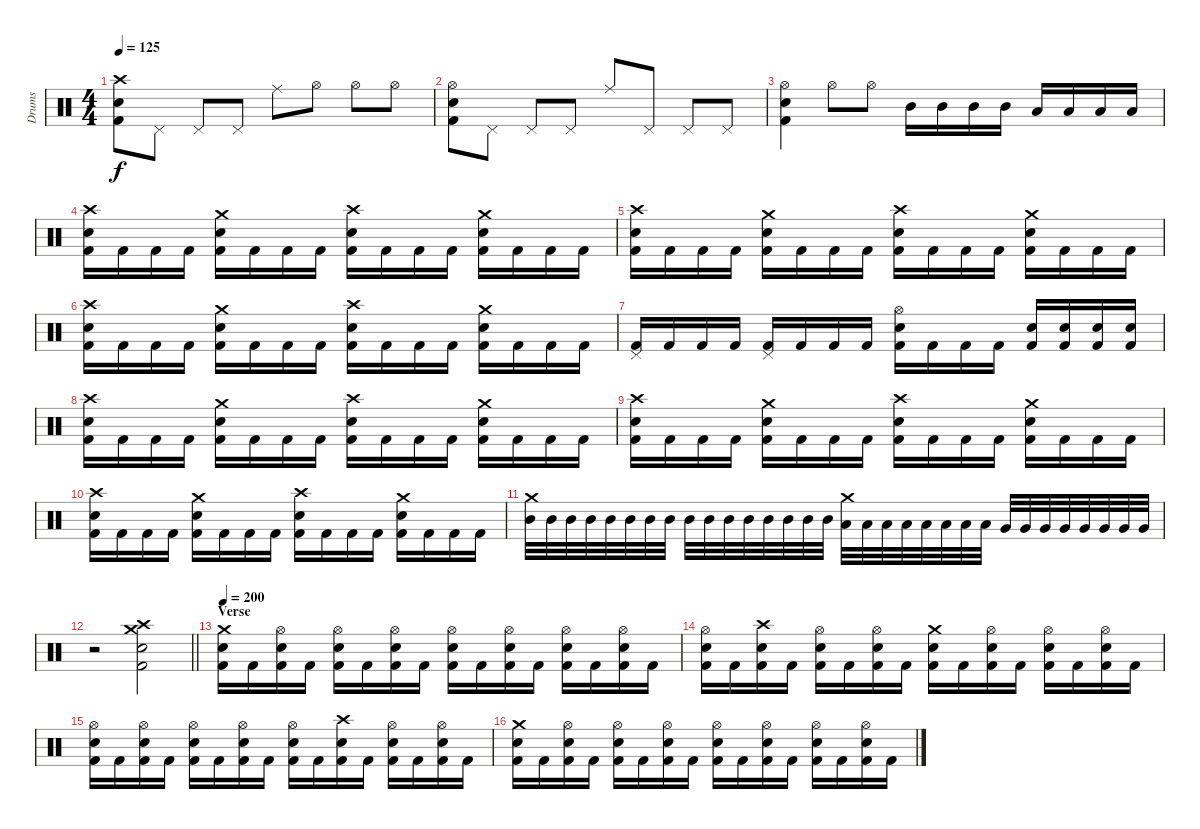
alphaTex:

\track ("Drums" "Drums") {instrument percussion}
\staff {score}
\articulation defaults
\ts (4 4)
\tempo 125
\clef neutral
\ks c
("Crash high (hit)" "Electric Snare (hit)" "Kick (hit) 2").8{dy f} "Pedal Hi-Hat (hit)".8 "Pedal Hi-Hat (hit)".8 "Pedal Hi-Hat (hit)".8 "Ride (middle)".8 "Hi-Hat (open)".8 "Hi-Hat (open)".8 "Hi-Hat (open)".8 |
("Hi-Hat (open)" "Electric Snare (hit)" "Kick (hit) 2").8 "Pedal Hi-Hat (hit)".8 "Pedal Hi-Hat (hit)".8 "Pedal Hi-Hat (hit)".8 "Ride (middle)".8 "Pedal Hi-Hat (hit)".8 "Pedal Hi-Hat (hit)".8 "Pedal Hi-Hat (hit)".8 |
("Hi-Hat (open)" "Electric Snare (hit)" "Kick (hit) 2").4 "Hi-Hat (open)".8 "Hi-Hat (open)".8 "Mid Tom (hit)".16 "Mid Tom (hit)".16 "Mid Tom (hit)".16 "Mid Tom (hit)".16 "Low Tom (hit)".16 "Low Tom (hit)".16 "Low Tom (hit)".16 "Low Tom (hit)".16 |
("Crash high (hit)" "Electric Snare (hit)" "Kick (hit) 2").16 "Kick (hit) 2".16 "Kick (hit) 2".16 "Kick (hit) 2".16 ("Crash medium (hit)" "Electric Snare (hit)" "Kick (hit) 2").16 "Kick (hit) 2".16 "Kick (hit) 2".16 "Kick (hit) 2".16 ("Crash high (hit)" "Electric Snare (hit)" "Kick (hit) 2").16 "Kick (hit) 2".16 "Kick (hit) 2".16 "Kick (hit) 2".16 ("Crash medium (hit)" "Electric Snare (hit)" "Kick (hit) 2").16 "Kick (hit) 2".16 "Kick (hit) 2".16 "Kick (hit) 2".16 |
("Crash high (hit)" "Electric Snare (hit)" "Kick (hit) 2").16 "Kick (hit) 2".16 "Kick (hit) 2".16 "Kick (hit) 2".16 ("Crash medium (hit)" "Electric Snare (hit)" "Kick (hit) 2").16 "Kick (hit) 2".16 "Kick (hit) 2".16 "Kick (hit) 2".16 ("Crash high (hit)" "Electric Snare (hit)" "Kick (hit) 2").16 "Kick (hit) 2".16 "Kick (hit) 2".16 "Kick (hit) 2".16 ("Crash medium (hit)" "Electric Snare (hit)" "Kick (hit) 2").16 "Kick (hit) 2".16 "Kick (hit) 2".16 "Kick (hit) 2".16 |
("Crash high (hit)" "Electric Snare (hit)" "Kick (hit) 2").16 "Kick (hit) 2".16 "Kick (hit) 2".16 "Kick (hit) 2".16 ("Crash medium (hit)" "Electric Snare (hit)" "Kick (hit) 2").16 "Kick (hit) 2".16 "Kick (hit) 2".16 "Kick (hit) 2".16 ("Crash high (hit)" "Electric Snare (hit)" "Kick (hit) 2").16 "Kick (hit) 2".16 "Kick (hit) 2".16 "Kick (hit) 2".16 ("Crash medium (hit)" "Electric Snare (hit)" "Kick (hit) 2").16 "Kick (hit) 2".16 "Kick (hit) 2".16 "Kick (hit) 2".16 |
("Pedal Hi-Hat (hit)" "Kick (hit) 2").16 "Kick (hit) 2".16 "Kick (hit) 2".16 "Kick (hit) 2".16 ("Pedal Hi-Hat (hit)" "Kick (hit) 2").16 "Kick (hit) 2".16 "Kick (hit) 2".16 "Kick (hit) 2".16 ("Hi-Hat (open)" "Electric Snare (hit)" "Kick (hit) 2").16 "Kick (hit) 2".16 "Kick (hit) 2".16 "Kick (hit) 2".16 ("Electric Snare (hit)" "Kick (hit) 2").16 ("Electric Snare (hit)" "Kick (hit) 2").16 ("Electric Snare (hit)" "Kick (hit) 2").16 ("Electric Snare (hit)" "Kick (hit) 2").16 |
("Crash high (hit)" "Electric Snare (hit)" "Kick (hit) 2").16 "Kick (hit) 2".16 "Kick (hit) 2".16 "Kick (hit) 2".16 ("Crash medium (hit)" "Electric Snare (hit)" "Kick (hit) 2").16 "Kick (hit) 2".16 "Kick (hit) 2".16 "Kick (hit) 2".16 ("Crash high (hit)" "Electric Snare (hit)" "Kick (hit) 2").16 "Kick (hit) 2".16 "Kick (hit) 2".16 "Kick (hit) 2".16 ("Crash medium (hit)" "Electric Snare (hit)" "Kick (hit) 2").16 "Kick (hit) 2".16 "Kick (hit) 2".16 "Kick (hit) 2".16 |
("Crash high (hit)" "Electric Snare (hit)" "Kick (hit) 2").16 "Kick (hit) 2".16 "Kick (hit) 2".16 "Kick (hit) 2".16 ("Crash medium (hit)" "Electric Snare (hit)" "Kick (hit) 2").16 "Kick (hit) 2".16 "Kick (hit) 2".16 "Kick (hit) 2".16 ("Crash high (hit)" "Electric Snare (hit)" "Kick (hit) 2").16 "Kick (hit) 2".16 "Kick (hit) 2".16 "Kick (hit) 2".16 ("Crash medium (hit)" "Electric Snare (hit)" "Kick (hit) 2").16 "Kick (hit) 2".16 "Kick (hit) 2".16 "Kick (hit) 2".16 |
("Crash high (hit)" "Electric Snare (hit)" "Kick (hit) 2").16 "Kick (hit) 2".16 "Kick (hit) 2".16 "Kick (hit) 2".16 ("Crash medium (hit)" "Electric Snare (hit)" "Kick (hit) 2").16 "Kick (hit) 2".16 "Kick (hit) 2".16 "Kick (hit) 2".16 ("Crash high (hit)" "Electric Snare (hit)" "Kick (hit) 2").16 "Kick (hit) 2".16 "Kick (hit) 2".16 "Kick (hit) 2".16 ("Crash medium (hit)" "Electric Snare (hit)" "Kick (hit) 2").16 "Kick (hit) 2".16 "Kick (hit) 2".16 "Kick (hit) 2".16 |
("Crash medium (hit)" "Mid Tom (hit)").32 "Mid Tom (hit)".32 "Mid Tom (hit)".32 "Mid Tom (hit)".32 "Mid Tom (hit)".32 "Mid Tom (hit)".32 "Mid Tom (hit)".32 "Mid Tom (hit)".32 "Mid Tom (hit)".32 "Mid Tom (hit)".32 "Mid Tom (hit)".32 "Mid Tom (hit)".32 "Mid Tom (hit)".32 "Mid Tom (hit)".32 "Mid Tom (hit)".32 "Mid Tom (hit)".32 ("Crash medium (hit)" "Low Tom (hit)").32 "Low Tom (hit)".32 "Low Tom (hit)".32 "Low Tom (hit)".32 "Low Tom (hit)".32 "Low Tom (hit)".32 "Low Tom (hit)".32 "Low Tom (hit)".32 "Very Low Tom (hit)".32 "Very Low Tom (hit)".32 "Very Low Tom (hit)".32 "Very Low Tom (hit)".32 "Very Low Tom (hit)".32 "Very Low Tom (hit)".32 "Very Low Tom (hit)".32 "Very Low Tom (hit)".32 |
\barLineRight lightlight
r.2 ("Crash medium (hit)" "Crash high (hit)" "Electric Snare (hit)" "Kick (hit) 2").2 |
\section ("" "Verse")
\tempo 200
("Crash medium (hit)" "Electric Snare (hit)" "Kick (hit) 2").16 "Kick (hit) 2".16 ("Hi-Hat (open)" "Electric Snare (hit)" "Kick (hit) 2").16 "Kick (hit) 2".16 ("Hi-Hat (open)" "Electric Snare (hit)" "Kick (hit) 2").16 "Kick (hit) 2".16 ("Hi-Hat (open)" "Electric Snare (hit)" "Kick (hit) 2").16 "Kick (hit) 2".16 ("Hi-Hat (open)" "Electric Snare (hit)" "Kick (hit) 2").16 "Kick (hit) 2".16 ("Hi-Hat (open)" "Electric Snare (hit)" "Kick (hit) 2").16 "Kick (hit) 2".16 ("Hi-Hat (open)" "Electric Snare (hit)" "Kick (hit) 2").16 "Kick (hit) 2".16 ("Hi-Hat (open)" "Electric Snare (hit)" "Kick (hit) 2").16 "Kick (hit) 2".16 |
("Hi-Hat (open)" "Electric Snare (hit)" "Kick (hit) 2").16 "Kick (hit) 2".16 ("Crash high (hit)" "Electric Snare (hit)" "Kick (hit) 2").16 "Kick (hit) 2".16 ("Hi-Hat (open)" "Electric Snare (hit)" "Kick (hit) 2").16 "Kick (hit) 2".16 ("Hi-Hat (open)" "Electric Snare (hit)" "Kick (hit) 2").16 "Kick (hit) 2".16 ("Crash medium (hit)" "Electric Snare (hit)" "Kick (hit) 2").16 "Kick (hit) 2".16 ("Hi-Hat (open)" "Electric Snare (hit)" "Kick (hit) 2").16 "Kick (hit) 2".16 ("Hi-Hat (open)" "Electric Snare (hit)" "Kick (hit) 2").16 "Kick (hit) 2".16 ("Hi-Hat (open)" "Electric Snare (hit)" "Kick (hit) 2").16 "Kick (hit) 2".16 |
("Hi-Hat (open)" "Electric Snare (hit)" "Kick (hit) 2").16 "Kick (hit) 2".16 ("Hi-Hat (open)" "Electric Snare (hit)" "Kick (hit) 2").16 "Kick (hit) 2".16 ("Hi-Hat (open)" "Electric Snare (hit)" "Kick (hit) 2").16 "Kick (hit) 2".16 ("Hi-Hat (open)" "Electric Snare (hit)" "Kick (hit) 2").16 "Kick (hit) 2".16 ("Hi-Hat (open)" "Electric Snare (hit)" "Kick (hit) 2").16 "Kick (hit) 2".16 ("Crash high (hit)" "Electric Snare (hit)" "Kick (hit) 2").16 "Kick (hit) 2".16 ("Hi-Hat (open)" "Electric Snare (hit)" "Kick (hit) 2").16 "Kick (hit) 2".16 ("Hi-Hat (open)" "Electric Snare (hit)" "Kick (hit) 2").16 "Kick (hit) 2".16 |
("Crash medium (hit)" "Electric Snare (hit)" "Kick (hit) 2").16 "Kick (hit) 2".16 ("Hi-Hat (open)" "Electric Snare (hit)" "Kick (hit) 2").16 "Kick (hit) 2".16 ("Hi-Hat (open)" "Electric Snare (hit)" "Kick (hit) 2").16 "Kick (hit) 2".16 ("Hi-Hat (open)" "Electric Snare (hit)" "Kick (hit) 2").16 "Kick (hit) 2".16 ("Hi-Hat (open)" "Electric Snare (hit)" "Kick (hit) 2").16 "Kick (hit) 2".16 ("Hi-Hat (open)" "Electric Snare (hit)" "Kick (hit) 2").16 "Kick (hit) 2".16 ("Hi-Hat (open)" "Electric Snare (hit)" "Kick (hit) 2").16 "Kick (hit) 2".16 ("Hi-Hat (open)" "Electric Snare (hit)" "Kick (hit) 2").16 "Kick (hit) 2".16
